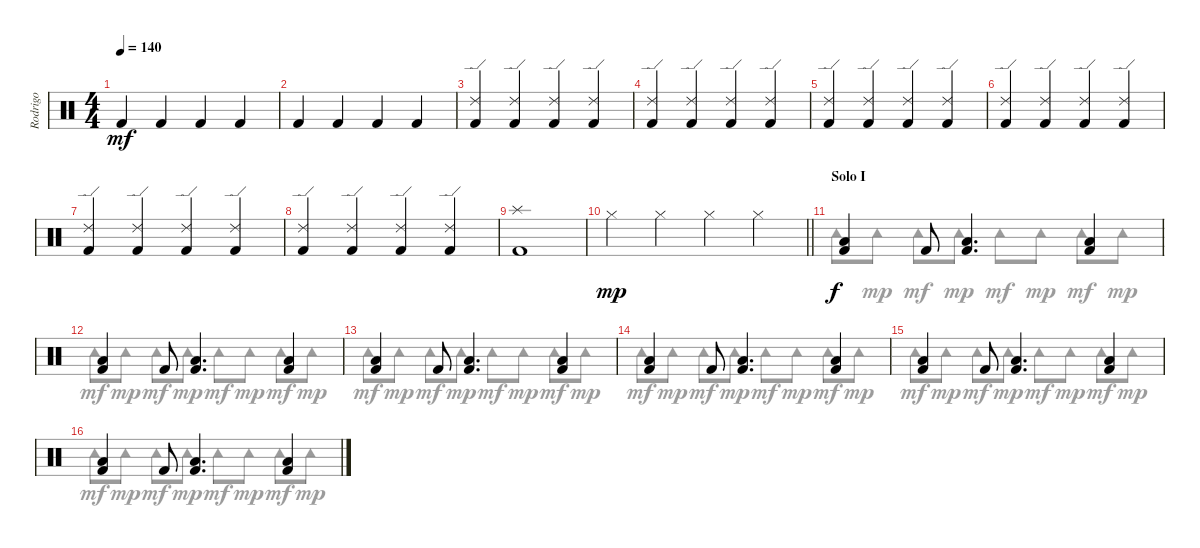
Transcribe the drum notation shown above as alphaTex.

\track ("Rodrigo" "Rodrigo") {instrument percussion}
\staff {score}
\articulation defaults
\voice
\ts (4 4)
\tempo 140
\clef neutral
\ks c "Kick (hit) 2".4{dy mf} "Kick (hit) 2".4 "Kick (hit) 2".4 "Kick (hit) 2".4
|
"Kick (hit) 2".4 "Kick (hit) 2".4 "Kick (hit) 2".4 "Kick (hit) 2".4 |
("Ride (edge) 2" "Kick (hit) 2").4 ("Ride (edge) 2" "Kick (hit) 2").4 ("Ride (edge) 2" "Kick (hit) 2").4 ("Ride (edge) 2" "Kick (hit) 2").4 |
("Ride (edge) 2" "Kick (hit) 2").4 ("Ride (edge) 2" "Kick (hit) 2").4 ("Ride (edge) 2" "Kick (hit) 2").4 ("Ride (edge) 2" "Kick (hit) 2").4 |
("Ride (edge) 2" "Kick (hit) 2").4 ("Ride (edge) 2" "Kick (hit) 2").4 ("Ride (edge) 2" "Kick (hit) 2").4 ("Ride (edge) 2" "Kick (hit) 2").4 |
("Ride (edge) 2" "Kick (hit) 2").4 ("Ride (edge) 2" "Kick (hit) 2").4 ("Ride (edge) 2" "Kick (hit) 2").4 ("Ride (edge) 2" "Kick (hit) 2").4 |
("Ride (edge) 2" "Kick (hit) 2").4 ("Ride (edge) 2" "Kick (hit) 2").4 ("Ride (edge) 2" "Kick (hit) 2").4 ("Ride (edge) 2" "Kick (hit) 2").4 |
("Ride (edge) 2" "Kick (hit) 2").4 ("Ride (edge) 2" "Kick (hit) 2").4 ("Ride (edge) 2" "Kick (hit) 2").4 ("Ride (edge) 2" "Kick (hit) 2").4 |
("Splash (hit)" "Kick (hit) 2").1 |
\barLineRight lightlight "Hi-Hat (closed)".4{dy mp} "Hi-Hat (closed)".4 "Hi-Hat (closed)".4 "Hi-Hat (closed)".4
|
\section ("" "Solo I")
("Low Floor Tom (hit)" "Kick (hit) 2").4{dy f} "Kick (hit) 2".8 ("Low Floor Tom (hit)" "Kick (hit) 2").4{d} ("Low Floor Tom (hit)" "Kick (hit) 2").4 |
("Low Floor Tom (hit)" "Kick (hit) 2").4 "Kick (hit) 2".8 ("Low Floor Tom (hit)" "Kick (hit) 2").4{d} ("Low Floor Tom (hit)" "Kick (hit) 2").4 |
("Low Floor Tom (hit)" "Kick (hit) 2").4 "Kick (hit) 2".8 ("Low Floor Tom (hit)" "Kick (hit) 2").4{d} ("Low Floor Tom (hit)" "Kick (hit) 2").4 |
("Low Floor Tom (hit)" "Kick (hit) 2").4 "Kick (hit) 2".8 ("Low Floor Tom (hit)" "Kick (hit) 2").4{d} ("Low Floor Tom (hit)" "Kick (hit) 2").4 |
("Low Floor Tom (hit)" "Kick (hit) 2").4 "Kick (hit) 2".8 ("Low Floor Tom (hit)" "Kick (hit) 2").4{d} ("Low Floor Tom (hit)" "Kick (hit) 2").4 |
("Low Floor Tom (hit)" "Kick (hit) 2").4 "Kick (hit) 2".8 ("Low Floor Tom (hit)" "Kick (hit) 2").4{d} ("Low Floor Tom (hit)" "Kick (hit) 2").4
\voice
\clef neutral
\ottava regular
\simile none
\ks c
|
|
|
|
|
|
|
|
|
\barLineRight lightlight
|
"Tambourine (hit)".8 "Tambourine (hit)".8{dy mp} "Tambourine (hit)".8{dy mf} "Tambourine (hit)".8{dy mp} "Tambourine (hit)".8{dy mf} "Tambourine (hit)".8{dy mp} "Tambourine (hit)".8{dy mf} "Tambourine (hit)".8{dy mp} |
"Tambourine (hit)".8{dy mf} "Tambourine (hit)".8{dy mp} "Tambourine (hit)".8{dy mf} "Tambourine (hit)".8{dy mp} "Tambourine (hit)".8{dy mf} "Tambourine (hit)".8{dy mp} "Tambourine (hit)".8{dy mf} "Tambourine (hit)".8{dy mp} |
"Tambourine (hit)".8{dy mf} "Tambourine (hit)".8{dy mp} "Tambourine (hit)".8{dy mf} "Tambourine (hit)".8{dy mp} "Tambourine (hit)".8{dy mf} "Tambourine (hit)".8{dy mp} "Tambourine (hit)".8{dy mf} "Tambourine (hit)".8{dy mp} |
"Tambourine (hit)".8{dy mf} "Tambourine (hit)".8{dy mp} "Tambourine (hit)".8{dy mf} "Tambourine (hit)".8{dy mp} "Tambourine (hit)".8{dy mf} "Tambourine (hit)".8{dy mp} "Tambourine (hit)".8{dy mf} "Tambourine (hit)".8{dy mp} |
"Tambourine (hit)".8{dy mf} "Tambourine (hit)".8{dy mp} "Tambourine (hit)".8{dy mf} "Tambourine (hit)".8{dy mp} "Tambourine (hit)".8{dy mf} "Tambourine (hit)".8{dy mp} "Tambourine (hit)".8{dy mf} "Tambourine (hit)".8{dy mp} |
"Tambourine (hit)".8{dy mf} "Tambourine (hit)".8{dy mp} "Tambourine (hit)".8{dy mf} "Tambourine (hit)".8{dy mp} "Tambourine (hit)".8{dy mf} "Tambourine (hit)".8{dy mp} "Tambourine (hit)".8{dy mf} "Tambourine (hit)".8{dy mp}
